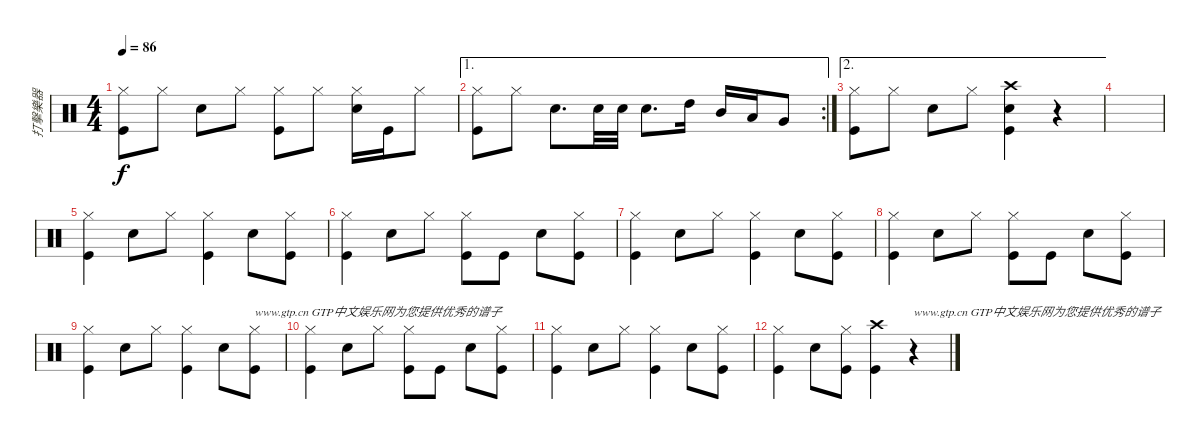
\track ("打擊樂器" "打擊樂器") {instrument percussion}
\staff {score}
\articulation defaults
\ts (4 4)
\tempo 86
\clef neutral
\ks c
("Hi-Hat (closed)" "Kick (hit)").8{dy f} "Hi-Hat (closed)".8 "Snare (hit) 2".8 "Hi-Hat (closed)".8 ("Hi-Hat (closed)" "Kick (hit)").8 "Hi-Hat (closed)".8 ("Hi-Hat (closed)" "Snare (hit) 2").16 "Kick (hit)".16 "Hi-Hat (closed)".8 |
\ae 1
\rc 2
("Hi-Hat (closed)" "Kick (hit)").8 "Hi-Hat (closed)".8 "Snare (hit) 2".8{d} "Snare (hit) 2".32 "Snare (hit) 2".32 "Snare (hit) 2".8{d} "High Tom (hit)".16 "Mid Tom (hit)".16 "Low Tom (hit)".16 "Very Low Tom (hit)".8 |
\ae 2
("Hi-Hat (closed)" "Kick (hit)").8 "Hi-Hat (closed)".8 "Snare (hit) 2".8 "Hi-Hat (closed)".8 ("Crash high (hit)" "Snare (hit) 2" "Kick (hit)").4 r.4 |
|
("Hi-Hat (closed)" "Kick (hit)").4 "Snare (hit) 2".8 "Hi-Hat (closed)".8 ("Hi-Hat (closed)" "Kick (hit)").4 "Snare (hit) 2".8 ("Hi-Hat (closed)" "Kick (hit)").8 |
("Hi-Hat (closed)" "Kick (hit)").4 "Snare (hit) 2".8 "Hi-Hat (closed)".8 ("Hi-Hat (closed)" "Kick (hit)").8 "Kick (hit)".8 "Snare (hit) 2".8 ("Hi-Hat (closed)" "Kick (hit)").8 |
("Hi-Hat (closed)" "Kick (hit)").4 "Snare (hit) 2".8 "Hi-Hat (closed)".8 ("Hi-Hat (closed)" "Kick (hit)").4 "Snare (hit) 2".8 ("Hi-Hat (closed)" "Kick (hit)").8 |
("Hi-Hat (closed)" "Kick (hit)").4 "Snare (hit) 2".8 "Hi-Hat (closed)".8 ("Hi-Hat (closed)" "Kick (hit)").8 "Kick (hit)".8 "Snare (hit) 2".8 ("Hi-Hat (closed)" "Kick (hit)").8 |
("Hi-Hat (closed)" "Kick (hit)").4 "Snare (hit) 2".8 "Hi-Hat (closed)".8 ("Hi-Hat (closed)" "Kick (hit)").4 "Snare (hit) 2".8 ("Hi-Hat (closed)" "Kick (hit)").8{txt "www.gtp.cn GTP中文娱乐网为您提供优秀的谱子"} |
("Hi-Hat (closed)" "Kick (hit)").4 "Snare (hit) 2".8 "Hi-Hat (closed)".8 ("Hi-Hat (closed)" "Kick (hit)").8 "Kick (hit)".8 "Snare (hit) 2".8 ("Hi-Hat (closed)" "Kick (hit)").8 |
("Hi-Hat (closed)" "Kick (hit)").4 "Snare (hit) 2".8 "Hi-Hat (closed)".8 ("Hi-Hat (closed)" "Kick (hit)").4 "Snare (hit) 2".8 ("Hi-Hat (closed)" "Kick (hit)").8 |
("Hi-Hat (closed)" "Kick (hit)").4 "Snare (hit) 2".8 ("Hi-Hat (closed)" "Kick (hit)").8 ("Crash high (hit)" "Kick (hit)").4 r.4{txt "www.gtp.cn GTP中文娱乐网为您提供优秀的谱子"}
